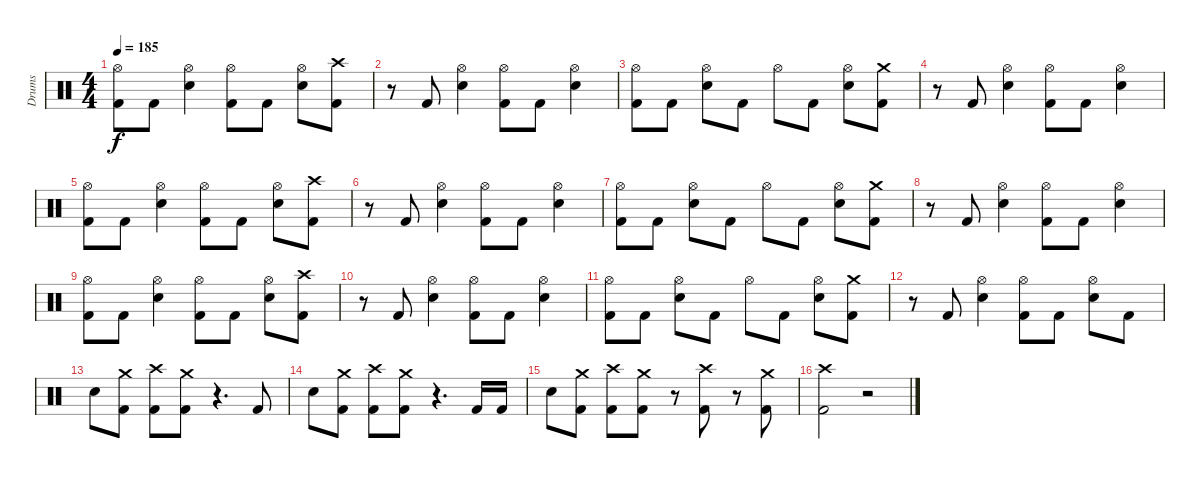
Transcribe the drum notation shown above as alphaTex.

\track ("Drums" "Drums") {instrument percussion}
\staff {score}
\articulation defaults
\ts (4 4)
\tempo 185
\clef neutral
\ks c
("Hi-Hat (open)" "Kick (hit) 2").8{dy f} "Kick (hit) 2".8 ("Hi-Hat (open)" "Snare (hit) 2").4 ("Hi-Hat (open)" "Kick (hit) 2").8 "Kick (hit) 2".8 ("Hi-Hat (open)" "Snare (hit) 2").8 ("Crash high (hit)" "Kick (hit) 2").8 |
r.8 "Kick (hit) 2".8 ("Hi-Hat (open)" "Snare (hit) 2").4 ("Hi-Hat (open)" "Kick (hit) 2").8 "Kick (hit) 2".8 ("Hi-Hat (open)" "Snare (hit) 2").4 |
("Hi-Hat (open)" "Kick (hit) 2").8 "Kick (hit) 2".8 ("Hi-Hat (open)" "Snare (hit) 2").8 "Kick (hit) 2".8 "Hi-Hat (open)".8 "Kick (hit) 2".8 ("Hi-Hat (open)" "Snare (hit) 2").8 ("Crash medium (hit)" "Kick (hit) 2").8 |
r.8 "Kick (hit) 2".8 ("Hi-Hat (open)" "Snare (hit) 2").4 ("Hi-Hat (open)" "Kick (hit) 2").8 "Kick (hit) 2".8 ("Hi-Hat (open)" "Snare (hit) 2").4 |
("Hi-Hat (open)" "Kick (hit) 2").8 "Kick (hit) 2".8 ("Hi-Hat (open)" "Snare (hit) 2").4 ("Hi-Hat (open)" "Kick (hit) 2").8 "Kick (hit) 2".8 ("Hi-Hat (open)" "Snare (hit) 2").8 ("Crash high (hit)" "Kick (hit) 2").8 |
r.8 "Kick (hit) 2".8 ("Hi-Hat (open)" "Snare (hit) 2").4 ("Hi-Hat (open)" "Kick (hit) 2").8 "Kick (hit) 2".8 ("Hi-Hat (open)" "Snare (hit) 2").4 |
("Hi-Hat (open)" "Kick (hit) 2").8 "Kick (hit) 2".8 ("Hi-Hat (open)" "Snare (hit) 2").8 "Kick (hit) 2".8 "Hi-Hat (open)".8 "Kick (hit) 2".8 ("Hi-Hat (open)" "Snare (hit) 2").8 ("Crash medium (hit)" "Kick (hit) 2").8 |
r.8 "Kick (hit) 2".8 ("Hi-Hat (open)" "Snare (hit) 2").4 ("Hi-Hat (open)" "Kick (hit) 2").8 "Kick (hit) 2".8 ("Hi-Hat (open)" "Snare (hit) 2").4 |
("Hi-Hat (open)" "Kick (hit) 2").8 "Kick (hit) 2".8 ("Hi-Hat (open)" "Snare (hit) 2").4 ("Hi-Hat (open)" "Kick (hit) 2").8 "Kick (hit) 2".8 ("Hi-Hat (open)" "Snare (hit) 2").8 ("Crash high (hit)" "Kick (hit) 2").8 |
r.8 "Kick (hit) 2".8 ("Hi-Hat (open)" "Snare (hit) 2").4 ("Hi-Hat (open)" "Kick (hit) 2").8 "Kick (hit) 2".8 ("Hi-Hat (open)" "Snare (hit) 2").4 |
("Hi-Hat (open)" "Kick (hit) 2").8 "Kick (hit) 2".8 ("Hi-Hat (open)" "Snare (hit) 2").8 "Kick (hit) 2".8 "Hi-Hat (open)".8 "Kick (hit) 2".8 ("Hi-Hat (open)" "Snare (hit) 2").8 ("Crash medium (hit)" "Kick (hit) 2").8 |
r.8 "Kick (hit) 2".8 ("Hi-Hat (open)" "Snare (hit) 2").4 ("Hi-Hat (open)" "Kick (hit) 2").8 "Kick (hit) 2".8 ("Hi-Hat (open)" "Snare (hit) 2").8 "Kick (hit) 2".8 |
"Snare (hit) 2".8 ("Crash medium (hit)" "Kick (hit) 2").8 ("Crash high (hit)" "Kick (hit) 2").8 ("Crash medium (hit)" "Kick (hit) 2").8 r.4{d} "Kick (hit) 2".8 |
"Snare (hit) 2".8 ("Crash medium (hit)" "Kick (hit) 2").8 ("Crash high (hit)" "Kick (hit) 2").8 ("Crash medium (hit)" "Kick (hit) 2").8 r.4{d} "Kick (hit) 2".16 "Kick (hit) 2".16 |
"Snare (hit) 2".8 ("Crash medium (hit)" "Kick (hit) 2").8 ("Crash high (hit)" "Kick (hit) 2").8 ("Crash medium (hit)" "Kick (hit) 2").8 r.8 ("Crash high (hit)" "Kick (hit) 2").8 r.8 ("Crash medium (hit)" "Kick (hit) 2").8 |
("Crash high (hit)" "Kick (hit) 2").2 r.2
